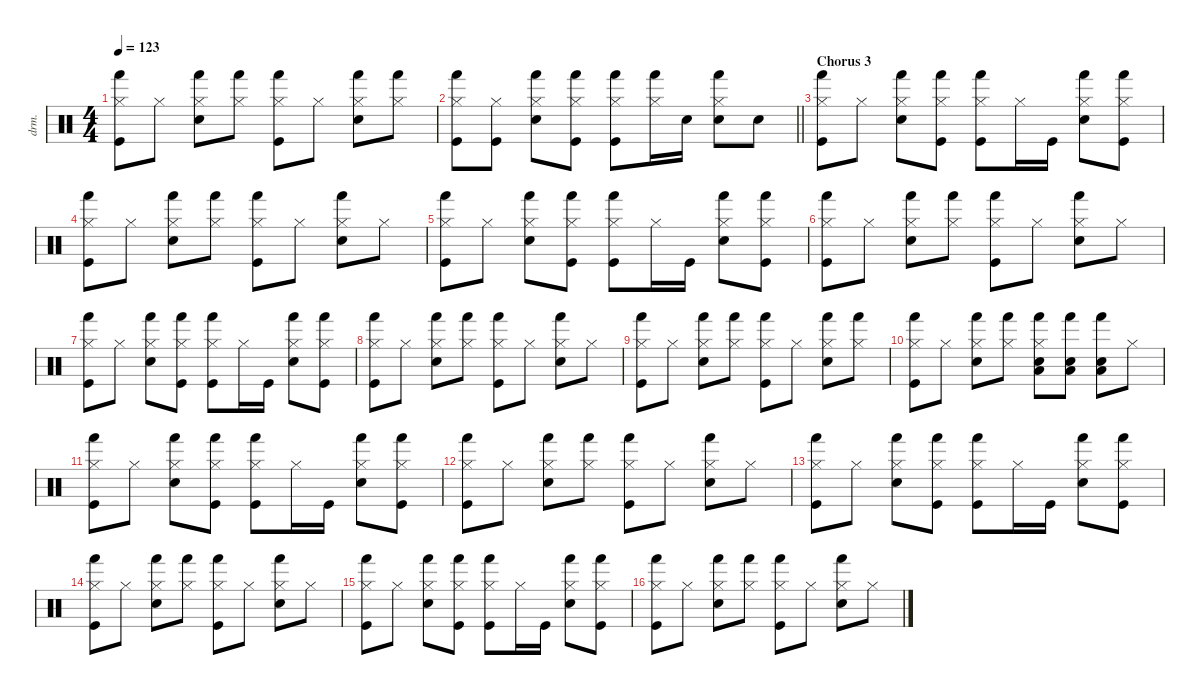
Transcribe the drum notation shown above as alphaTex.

\defaultSystemsLayout 4
\hideDynamics
\bracketExtendMode nobrackets
\otherSystemsTrackNameOrientation horizontal
\track ("Drums" "drm.") {defaultSystemsLayout 4 instrument percussion}
\staff {score}
\articulation defaults
\ts (4 4)
\tempo 123
\clef neutral
\ks c
("Hi-Hat (closed)" "Hand (hit)" "Kick (hit)").8{dy fff beam Down} "Hi-Hat (closed)".8{beam Down} ("Snare (hit) 2" "Hi-Hat (closed)" "Hand (hit)").8{beam Down} ("Hi-Hat (closed)" "Hand (hit)").8{beam Down} ("Hi-Hat (closed)" "Kick (hit)" "Hand (hit)").8{beam Down} "Hi-Hat (closed)".8{beam Down} ("Hi-Hat (closed)" "Snare (hit) 2" "Hand (hit)").8{beam Down} ("Hi-Hat (closed)" "Hand (hit)").8{beam Down} |
\barLineRight lightlight
("Hi-Hat (closed)" "Hand (hit)" "Kick (hit)").8{beam Down} ("Kick (hit)" "Hi-Hat (closed)").8{beam Down} ("Hand (hit)" "Hi-Hat (closed)" "Snare (hit) 2").8{beam Down} ("Kick (hit)" "Hand (hit)" "Hi-Hat (closed)").8{beam Down} ("Hand (hit)" "Hi-Hat (closed)" "Kick (hit)").8{beam Down} ("Hi-Hat (closed)" "Hand (hit)").16{beam Down} "Snare (hit) 2".16{beam Down} ("Hand (hit)" "Hi-Hat (closed)" "Snare (hit) 2").8{beam Down} "Snare (hit) 2".8{beam Down} |
\section ("" "Chorus 3")
("Hand (hit)" "Hi-Hat (closed)" "Kick (hit)").8{beam Down} "Hi-Hat (closed)".8{beam Down} ("Hi-Hat (closed)" "Hand (hit)" "Snare (hit) 2").8{beam Down} ("Hi-Hat (closed)" "Hand (hit)" "Kick (hit)").8{beam Down} ("Hi-Hat (closed)" "Hand (hit)" "Kick (hit)").8{beam Down} "Hi-Hat (closed)".16{beam Down} "Kick (hit)".16{beam Down} ("Hi-Hat (closed)" "Snare (hit) 2" "Hand (hit)").8{beam Down} ("Hi-Hat (closed)" "Hand (hit)" "Kick (hit)").8{beam Down} |
("Hi-Hat (closed)" "Kick (hit)" "Hand (hit)").8{beam Down} "Hi-Hat (closed)".8{beam Down} ("Snare (hit) 2" "Hand (hit)" "Hi-Hat (closed)").8{beam Down} ("Hi-Hat (closed)" "Hand (hit)").8{beam Down} ("Hi-Hat (closed)" "Kick (hit)" "Hand (hit)").8{beam Down} "Hi-Hat (closed)".8{beam Down} ("Snare (hit) 2" "Hand (hit)" "Hi-Hat (closed)").8{beam Down} "Hi-Hat (closed)".8{beam Down} |
("Hand (hit)" "Hi-Hat (closed)" "Kick (hit)").8{beam Down} "Hi-Hat (closed)".8{beam Down} ("Hi-Hat (closed)" "Hand (hit)" "Snare (hit) 2").8{beam Down} ("Hi-Hat (closed)" "Hand (hit)" "Kick (hit)").8{beam Down} ("Hi-Hat (closed)" "Hand (hit)" "Kick (hit)").8{beam Down} "Hi-Hat (closed)".16{beam Down} "Kick (hit)".16{beam Down} ("Hi-Hat (closed)" "Snare (hit) 2" "Hand (hit)").8{beam Down} ("Hi-Hat (closed)" "Hand (hit)" "Kick (hit)").8{beam Down} |
("Hi-Hat (closed)" "Kick (hit)" "Hand (hit)").8{beam Down} "Hi-Hat (closed)".8{beam Down} ("Snare (hit) 2" "Hand (hit)" "Hi-Hat (closed)").8{beam Down} ("Hi-Hat (closed)" "Hand (hit)").8{beam Down} ("Hi-Hat (closed)" "Kick (hit)" "Hand (hit)").8{beam Down} "Hi-Hat (closed)".8{beam Down} ("Snare (hit) 2" "Hand (hit)" "Hi-Hat (closed)").8{beam Down} "Hi-Hat (closed)".8{beam Down} |
("Hand (hit)" "Hi-Hat (closed)" "Kick (hit)").8{beam Down} "Hi-Hat (closed)".8{beam Down} ("Hi-Hat (closed)" "Hand (hit)" "Snare (hit) 2").8{beam Down} ("Hi-Hat (closed)" "Hand (hit)" "Kick (hit)").8{beam Down} ("Hi-Hat (closed)" "Hand (hit)" "Kick (hit)").8{beam Down} "Hi-Hat (closed)".16{beam Down} "Kick (hit)".16{beam Down} ("Hi-Hat (closed)" "Snare (hit) 2" "Hand (hit)").8{beam Down} ("Hi-Hat (closed)" "Hand (hit)" "Kick (hit)").8{beam Down} |
("Hi-Hat (closed)" "Kick (hit)" "Hand (hit)").8{beam Down} "Hi-Hat (closed)".8{beam Down} ("Snare (hit) 2" "Hand (hit)" "Hi-Hat (closed)").8{beam Down} ("Hi-Hat (closed)" "Hand (hit)").8{beam Down} ("Hi-Hat (closed)" "Kick (hit)" "Hand (hit)").8{beam Down} "Hi-Hat (closed)".8{beam Down} ("Snare (hit) 2" "Hand (hit)" "Hi-Hat (closed)").8{beam Down} "Hi-Hat (closed)".8{beam Down} |
("Hi-Hat (closed)" "Hand (hit)" "Kick (hit)").8{beam Down} "Hi-Hat (closed)".8{beam Down} ("Snare (hit) 2" "Hi-Hat (closed)" "Hand (hit)").8{beam Down} ("Hi-Hat (closed)" "Hand (hit)").8{beam Down} ("Hi-Hat (closed)" "Kick (hit)" "Hand (hit)").8{beam Down} "Hi-Hat (closed)".8{beam Down} ("Hi-Hat (closed)" "Snare (hit) 2" "Hand (hit)").8{beam Down} ("Hi-Hat (closed)" "Hand (hit)").8{beam Down} |
("Hi-Hat (closed)" "Kick (hit)" "Hand (hit)").8{beam Down} "Hi-Hat (closed)".8{beam Down} ("Snare (hit) 2" "Hi-Hat (closed)" "Hand (hit)").8{beam Down} ("Hi-Hat (closed)" "Hand (hit)").8{beam Down} ("Low Tom (hit)" "Hi-Hat (closed)" "Snare (hit) 2" "Hand (hit)").8{beam Down} ("Snare (hit) 2" "Low Tom (hit)" "Hand (hit)").8{beam Down} ("Snare (hit) 2" "Hand (hit)" "Low Tom (hit)").8{beam Down} "Hi-Hat (closed)".8{beam Down} |
("Hand (hit)" "Hi-Hat (closed)" "Kick (hit)").8{beam Down} "Hi-Hat (closed)".8{beam Down} ("Hi-Hat (closed)" "Hand (hit)" "Snare (hit) 2").8{beam Down} ("Hi-Hat (closed)" "Hand (hit)" "Kick (hit)").8{beam Down} ("Hi-Hat (closed)" "Hand (hit)" "Kick (hit)").8{beam Down} "Hi-Hat (closed)".16{beam Down} "Kick (hit)".16{beam Down} ("Hi-Hat (closed)" "Snare (hit) 2" "Hand (hit)").8{beam Down} ("Hi-Hat (closed)" "Hand (hit)" "Kick (hit)").8{beam Down} |
("Hi-Hat (closed)" "Kick (hit)" "Hand (hit)").8{beam Down} "Hi-Hat (closed)".8{beam Down} ("Snare (hit) 2" "Hand (hit)" "Hi-Hat (closed)").8{beam Down} ("Hi-Hat (closed)" "Hand (hit)").8{beam Down} ("Hi-Hat (closed)" "Kick (hit)" "Hand (hit)").8{beam Down} "Hi-Hat (closed)".8{beam Down} ("Snare (hit) 2" "Hand (hit)" "Hi-Hat (closed)").8{beam Down} "Hi-Hat (closed)".8{beam Down} |
("Hand (hit)" "Hi-Hat (closed)" "Kick (hit)").8{beam Down} "Hi-Hat (closed)".8{beam Down} ("Hi-Hat (closed)" "Hand (hit)" "Snare (hit) 2").8{beam Down} ("Hi-Hat (closed)" "Hand (hit)" "Kick (hit)").8{beam Down} ("Hi-Hat (closed)" "Hand (hit)" "Kick (hit)").8{beam Down} "Hi-Hat (closed)".16{beam Down} "Kick (hit)".16{beam Down} ("Hi-Hat (closed)" "Snare (hit) 2" "Hand (hit)").8{beam Down} ("Hi-Hat (closed)" "Hand (hit)" "Kick (hit)").8{beam Down} |
("Hi-Hat (closed)" "Kick (hit)" "Hand (hit)").8{beam Down} "Hi-Hat (closed)".8{beam Down} ("Snare (hit) 2" "Hand (hit)" "Hi-Hat (closed)").8{beam Down} ("Hi-Hat (closed)" "Hand (hit)").8{beam Down} ("Hi-Hat (closed)" "Kick (hit)" "Hand (hit)").8{beam Down} "Hi-Hat (closed)".8{beam Down} ("Snare (hit) 2" "Hand (hit)" "Hi-Hat (closed)").8{beam Down} "Hi-Hat (closed)".8{beam Down} |
("Hand (hit)" "Hi-Hat (closed)" "Kick (hit)").8{beam Down} "Hi-Hat (closed)".8{beam Down} ("Hi-Hat (closed)" "Hand (hit)" "Snare (hit) 2").8{beam Down} ("Hi-Hat (closed)" "Hand (hit)" "Kick (hit)").8{beam Down} ("Hi-Hat (closed)" "Hand (hit)" "Kick (hit)").8{beam Down} "Hi-Hat (closed)".16{beam Down} "Kick (hit)".16{beam Down} ("Hi-Hat (closed)" "Snare (hit) 2" "Hand (hit)").8{beam Down} ("Hi-Hat (closed)" "Hand (hit)" "Kick (hit)").8{beam Down} |
("Hi-Hat (closed)" "Kick (hit)" "Hand (hit)").8{beam Down} "Hi-Hat (closed)".8{beam Down} ("Snare (hit) 2" "Hand (hit)" "Hi-Hat (closed)").8{beam Down} ("Hi-Hat (closed)" "Hand (hit)").8{beam Down} ("Hi-Hat (closed)" "Kick (hit)" "Hand (hit)").8{beam Down} "Hi-Hat (closed)".8{beam Down} ("Snare (hit) 2" "Hand (hit)" "Hi-Hat (closed)").8{beam Down} "Hi-Hat (closed)".8{beam Down}
